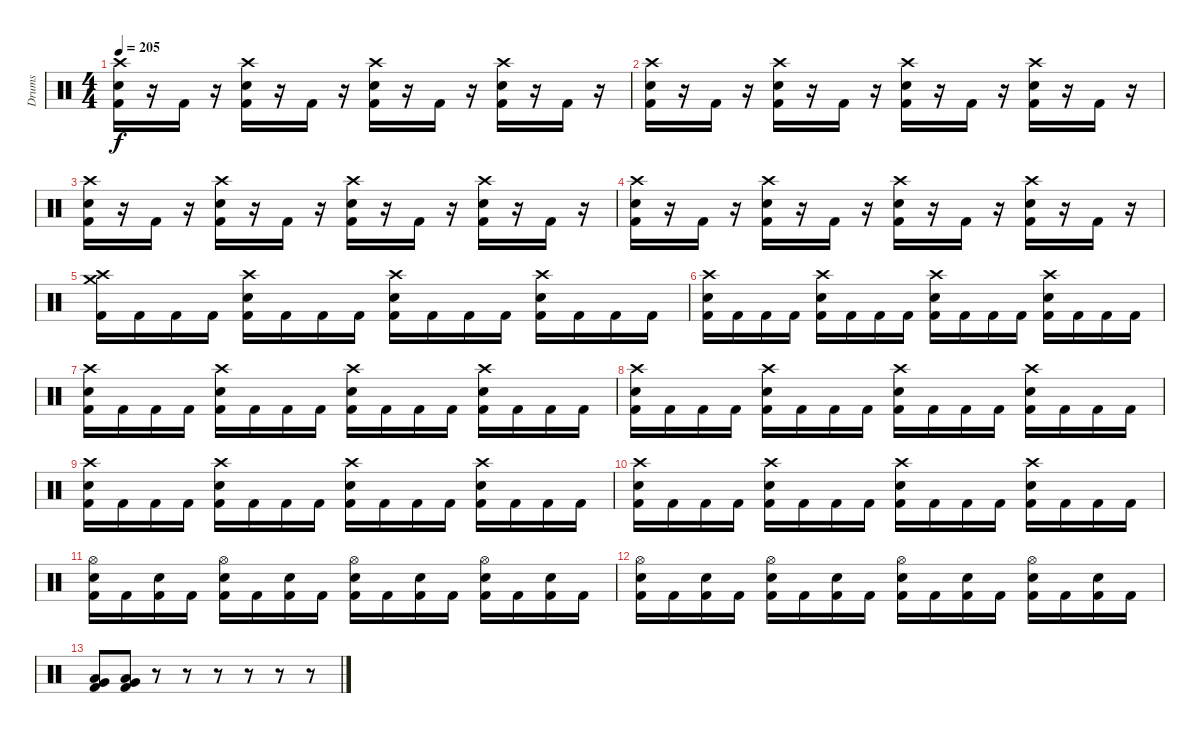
\track ("Drums" "Drums") {instrument percussion}
\staff {score}
\articulation defaults
\ts (4 4)
\tempo 205
\clef neutral
\ks c
("Crash high (hit)" "Electric Snare (hit)" "Kick (hit) 2").16{dy f} r.16 "Kick (hit) 2".16 r.16 ("Crash high (hit)" "Electric Snare (hit)" "Kick (hit) 2").16 r.16 "Kick (hit) 2".16 r.16 ("Crash high (hit)" "Electric Snare (hit)" "Kick (hit) 2").16 r.16 "Kick (hit) 2".16 r.16 ("Crash high (hit)" "Electric Snare (hit)" "Kick (hit) 2").16 r.16 "Kick (hit) 2".16 r.16 |
("Crash high (hit)" "Electric Snare (hit)" "Kick (hit) 2").16 r.16 "Kick (hit) 2".16 r.16 ("Crash high (hit)" "Electric Snare (hit)" "Kick (hit) 2").16 r.16 "Kick (hit) 2".16 r.16 ("Crash high (hit)" "Electric Snare (hit)" "Kick (hit) 2").16 r.16 "Kick (hit) 2".16 r.16 ("Crash high (hit)" "Electric Snare (hit)" "Kick (hit) 2").16 r.16 "Kick (hit) 2".16 r.16 |
("Crash high (hit)" "Electric Snare (hit)" "Kick (hit) 2").16 r.16 "Kick (hit) 2".16 r.16 ("Crash high (hit)" "Electric Snare (hit)" "Kick (hit) 2").16 r.16 "Kick (hit) 2".16 r.16 ("Crash high (hit)" "Electric Snare (hit)" "Kick (hit) 2").16 r.16 "Kick (hit) 2".16 r.16 ("Crash high (hit)" "Electric Snare (hit)" "Kick (hit) 2").16 r.16 "Kick (hit) 2".16 r.16 |
("Crash high (hit)" "Electric Snare (hit)" "Kick (hit) 2").16 r.16 "Kick (hit) 2".16 r.16 ("Crash high (hit)" "Electric Snare (hit)" "Kick (hit) 2").16 r.16 "Kick (hit) 2".16 r.16 ("Crash high (hit)" "Electric Snare (hit)" "Kick (hit) 2").16 r.16 "Kick (hit) 2".16 r.16 ("Crash high (hit)" "Electric Snare (hit)" "Kick (hit) 2").16 r.16 "Kick (hit) 2".16 r.16 |
("Crash high (hit)" "Crash medium (hit)" "Kick (hit) 2").16 "Kick (hit) 2".16 "Kick (hit) 2".16 "Kick (hit) 2".16 ("Crash high (hit)" "Electric Snare (hit)" "Kick (hit) 2").16 "Kick (hit) 2".16 "Kick (hit) 2".16 "Kick (hit) 2".16 ("Crash high (hit)" "Electric Snare (hit)" "Kick (hit) 2").16 "Kick (hit) 2".16 "Kick (hit) 2".16 "Kick (hit) 2".16 ("Crash high (hit)" "Electric Snare (hit)" "Kick (hit) 2").16 "Kick (hit) 2".16 "Kick (hit) 2".16 "Kick (hit) 2".16 |
("Crash high (hit)" "Electric Snare (hit)" "Kick (hit) 2").16 "Kick (hit) 2".16 "Kick (hit) 2".16 "Kick (hit) 2".16 ("Crash high (hit)" "Electric Snare (hit)" "Kick (hit) 2").16 "Kick (hit) 2".16 "Kick (hit) 2".16 "Kick (hit) 2".16 ("Crash high (hit)" "Electric Snare (hit)" "Kick (hit) 2").16 "Kick (hit) 2".16 "Kick (hit) 2".16 "Kick (hit) 2".16 ("Crash high (hit)" "Electric Snare (hit)" "Kick (hit) 2").16 "Kick (hit) 2".16 "Kick (hit) 2".16 "Kick (hit) 2".16 |
("Crash high (hit)" "Electric Snare (hit)" "Kick (hit) 2").16 "Kick (hit) 2".16 "Kick (hit) 2".16 "Kick (hit) 2".16 ("Crash high (hit)" "Electric Snare (hit)" "Kick (hit) 2").16 "Kick (hit) 2".16 "Kick (hit) 2".16 "Kick (hit) 2".16 ("Crash high (hit)" "Electric Snare (hit)" "Kick (hit) 2").16 "Kick (hit) 2".16 "Kick (hit) 2".16 "Kick (hit) 2".16 ("Crash high (hit)" "Electric Snare (hit)" "Kick (hit) 2").16 "Kick (hit) 2".16 "Kick (hit) 2".16 "Kick (hit) 2".16 |
("Crash high (hit)" "Electric Snare (hit)" "Kick (hit) 2").16 "Kick (hit) 2".16 "Kick (hit) 2".16 "Kick (hit) 2".16 ("Crash high (hit)" "Electric Snare (hit)" "Kick (hit) 2").16 "Kick (hit) 2".16 "Kick (hit) 2".16 "Kick (hit) 2".16 ("Crash high (hit)" "Electric Snare (hit)" "Kick (hit) 2").16 "Kick (hit) 2".16 "Kick (hit) 2".16 "Kick (hit) 2".16 ("Crash high (hit)" "Electric Snare (hit)" "Kick (hit) 2").16 "Kick (hit) 2".16 "Kick (hit) 2".16 "Kick (hit) 2".16 |
("Crash high (hit)" "Electric Snare (hit)" "Kick (hit) 2").16 "Kick (hit) 2".16 "Kick (hit) 2".16 "Kick (hit) 2".16 ("Crash high (hit)" "Electric Snare (hit)" "Kick (hit) 2").16 "Kick (hit) 2".16 "Kick (hit) 2".16 "Kick (hit) 2".16 ("Crash high (hit)" "Electric Snare (hit)" "Kick (hit) 2").16 "Kick (hit) 2".16 "Kick (hit) 2".16 "Kick (hit) 2".16 ("Crash high (hit)" "Electric Snare (hit)" "Kick (hit) 2").16 "Kick (hit) 2".16 "Kick (hit) 2".16 "Kick (hit) 2".16 |
("Crash high (hit)" "Electric Snare (hit)" "Kick (hit) 2").16 "Kick (hit) 2".16 "Kick (hit) 2".16 "Kick (hit) 2".16 ("Crash high (hit)" "Electric Snare (hit)" "Kick (hit) 2").16 "Kick (hit) 2".16 "Kick (hit) 2".16 "Kick (hit) 2".16 ("Crash high (hit)" "Electric Snare (hit)" "Kick (hit) 2").16 "Kick (hit) 2".16 "Kick (hit) 2".16 "Kick (hit) 2".16 ("Crash high (hit)" "Electric Snare (hit)" "Kick (hit) 2").16 "Kick (hit) 2".16 "Kick (hit) 2".16 "Kick (hit) 2".16 |
("Hi-Hat (open)" "Electric Snare (hit)" "Kick (hit) 2").16 "Kick (hit) 2".16 ("Electric Snare (hit)" "Kick (hit) 2").16 "Kick (hit) 2".16 ("Hi-Hat (open)" "Electric Snare (hit)" "Kick (hit) 2").16 "Kick (hit) 2".16 ("Electric Snare (hit)" "Kick (hit) 2").16 "Kick (hit) 2".16 ("Hi-Hat (open)" "Electric Snare (hit)" "Kick (hit) 2").16 "Kick (hit) 2".16 ("Electric Snare (hit)" "Kick (hit) 2").16 "Kick (hit) 2".16 ("Hi-Hat (open)" "Electric Snare (hit)" "Kick (hit) 2").16 "Kick (hit) 2".16 ("Electric Snare (hit)" "Kick (hit) 2").16 "Kick (hit) 2".16 |
("Hi-Hat (open)" "Electric Snare (hit)" "Kick (hit) 2").16 "Kick (hit) 2".16 ("Electric Snare (hit)" "Kick (hit) 2").16 "Kick (hit) 2".16 ("Hi-Hat (open)" "Electric Snare (hit)" "Kick (hit) 2").16 "Kick (hit) 2".16 ("Electric Snare (hit)" "Kick (hit) 2").16 "Kick (hit) 2".16 ("Hi-Hat (open)" "Electric Snare (hit)" "Kick (hit) 2").16 "Kick (hit) 2".16 ("Electric Snare (hit)" "Kick (hit) 2").16 "Kick (hit) 2".16 ("Hi-Hat (open)" "Electric Snare (hit)" "Kick (hit) 2").16 "Kick (hit) 2".16 ("Electric Snare (hit)" "Kick (hit) 2").16 "Kick (hit) 2".16 |
("Very Low Tom (hit)" "Low Floor Tom (hit)" "Kick (hit) 2").8 ("Very Low Tom (hit)" "Low Floor Tom (hit)" "Kick (hit) 2").8 r.8 r.8 r.8 r.8 r.8 r.8
